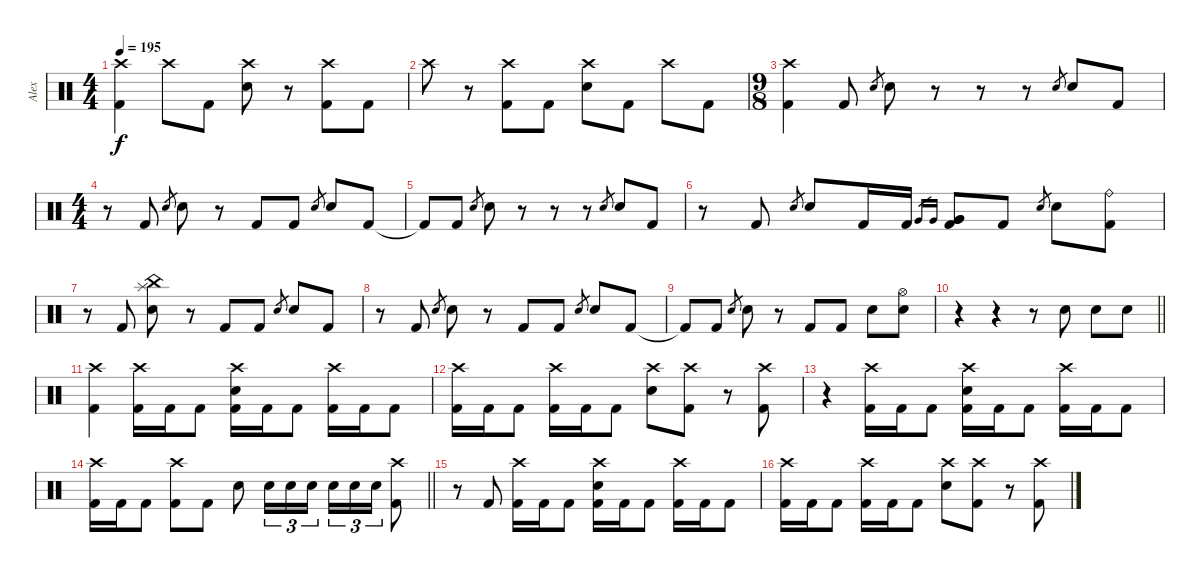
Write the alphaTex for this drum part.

\track ("Alex" "Alex") {instrument percussion}
\staff {score}
\articulation defaults
\ts (4 4)
\tempo 195
\clef neutral
\ks c
("Crash high (hit)" "Kick (hit) 2").4{dy f} "Crash high (hit)".8 "Kick (hit) 2".8 ("Crash high (hit)" "Electric Snare (hit)").8 r.8 ("Crash high (hit)" "Kick (hit) 2").8 "Kick (hit) 2".8 |
"Crash high (hit)".8 r.8 ("Crash high (hit)" "Kick (hit) 2").8 "Kick (hit) 2".8 ("Crash high (hit)" "Electric Snare (hit)").8 "Kick (hit) 2".8 "Crash high (hit)".8 "Kick (hit) 2".8 |
\ts (9 8)
("Crash high (hit)" "Kick (hit) 2").4 "Kick (hit) 2".8 "Electric Snare (hit)".8{gr} "Electric Snare (hit)".8 r.8 r.8 r.8 "Electric Snare (hit)".8{gr} "Electric Snare (hit)".8 "Kick (hit) 2".8 |
\ts (4 4)
r.8 "Kick (hit) 2".8 "Electric Snare (hit)".8{gr} "Electric Snare (hit)".8 r.8 "Kick (hit) 2".8 "Kick (hit) 2".8 "Electric Snare (hit)".8{gr} "Electric Snare (hit)".8 "Kick (hit) 2".8 |
"Kick (hit) 2"{t}.8 "Kick (hit) 2".8 "Electric Snare (hit)".8{gr} "Electric Snare (hit)".8 r.8 r.8 r.8 "Electric Snare (hit)".8{gr} "Electric Snare (hit)".8 "Kick (hit) 2".8 |
r.8 "Kick (hit) 2".8 "Electric Snare (hit)".8{gr} "Electric Snare (hit)".8 "Kick (hit) 2".16 "Kick (hit) 2".16 "Very Low Tom (hit)".16{gr} "Very Low Tom (hit)".16{gr} ("Very Low Tom (hit)" "Very Low Tom (hit)" "Kick (hit) 2").8 "Kick (hit) 2".8 "Electric Snare (hit)".8{gr} "Electric Snare (hit)".8 ("Ride (bell)" "Kick (hit) 2").8 |
r.8 "Kick (hit) 2".8 ("China (hit)" "Splash (hit)" "Electric Snare (hit)").8 r.8 "Kick (hit) 2".8 "Kick (hit) 2".8 "Electric Snare (hit)".8{gr} "Electric Snare (hit)".8 "Kick (hit) 2".8 |
r.8 "Kick (hit) 2".8 "Electric Snare (hit)".8{gr} "Electric Snare (hit)".8 r.8 "Kick (hit) 2".8 "Kick (hit) 2".8 "Electric Snare (hit)".8{gr} "Electric Snare (hit)".8 "Kick (hit) 2".8 |
"Kick (hit) 2"{t}.8 "Kick (hit) 2".8 "Electric Snare (hit)".8{gr} "Electric Snare (hit)".8 r.8 "Kick (hit) 2".8 "Kick (hit) 2".8 "Electric Snare (hit)".8 ("Hi-Hat (open)" "Electric Snare (hit)").8 |
\barLineRight lightlight
r.4 r.4 r.8 "Electric Snare (hit)".8 "Electric Snare (hit)".8 "Electric Snare (hit)".8 |
("Crash high (hit)" "Kick (hit) 2").4 ("Crash high (hit)" "Kick (hit) 2").16 "Kick (hit) 2".16 "Kick (hit) 2".8 ("Crash high (hit)" "Electric Snare (hit)" "Kick (hit) 2").16 "Kick (hit) 2".16 "Kick (hit) 2".8 ("Crash high (hit)" "Kick (hit) 2").16 "Kick (hit) 2".16 "Kick (hit) 2".8 |
("Crash high (hit)" "Kick (hit) 2").16 "Kick (hit) 2".16 "Kick (hit) 2".8 ("Crash high (hit)" "Kick (hit) 2").16 "Kick (hit) 2".16 "Kick (hit) 2".8 ("Crash high (hit)" "Electric Snare (hit)").8 ("Crash high (hit)" "Kick (hit) 2").8 r.8 ("Crash high (hit)" "Kick (hit) 2").8 |
r.4 ("Crash high (hit)" "Kick (hit) 2").16 "Kick (hit) 2".16 "Kick (hit) 2".8 ("Crash high (hit)" "Electric Snare (hit)" "Kick (hit) 2").16 "Kick (hit) 2".16 "Kick (hit) 2".8 ("Crash high (hit)" "Kick (hit) 2").16 "Kick (hit) 2".16 "Kick (hit) 2".8 |
\barLineRight lightlight
("Crash high (hit)" "Kick (hit) 2").16 "Kick (hit) 2".16 "Kick (hit) 2".8 ("Crash high (hit)" "Kick (hit) 2").8 "Kick (hit) 2".8 "Electric Snare (hit)".8 "Electric Snare (hit)".16{tu (3 2)} "Electric Snare (hit)".16{tu (3 2)} "Electric Snare (hit)".16{tu (3 2)} "Electric Snare (hit)".16{tu (3 2)} "Electric Snare (hit)".16{tu (3 2)} "Electric Snare (hit)".16{tu (3 2)} ("Crash high (hit)" "Kick (hit) 2").8 |
r.8 "Kick (hit) 2".8 ("Crash high (hit)" "Kick (hit) 2").16 "Kick (hit) 2".16 "Kick (hit) 2".8 ("Crash high (hit)" "Electric Snare (hit)" "Kick (hit) 2").16 "Kick (hit) 2".16 "Kick (hit) 2".8 ("Crash high (hit)" "Kick (hit) 2").16 "Kick (hit) 2".16 "Kick (hit) 2".8 |
("Crash high (hit)" "Kick (hit) 2").16 "Kick (hit) 2".16 "Kick (hit) 2".8 ("Crash high (hit)" "Kick (hit) 2").16 "Kick (hit) 2".16 "Kick (hit) 2".8 ("Crash high (hit)" "Electric Snare (hit)").8 ("Crash high (hit)" "Kick (hit) 2").8 r.8 ("Crash high (hit)" "Kick (hit) 2").8
